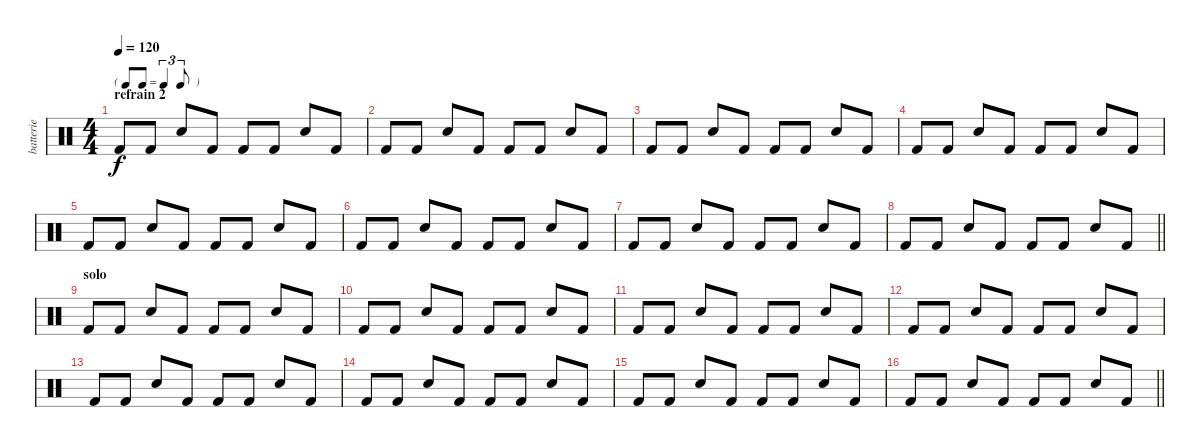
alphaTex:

\track ("batterie" "batterie") {instrument percussion}
\staff {score}
\articulation defaults
\ts (4 4)
\tf triplet8th
\section ("" "refrain 2")
\tempo 120
\clef neutral
\ks c "Kick (hit) 2".8{dy f} "Kick (hit) 2".8 "Snare (hit) 2".8 "Kick (hit) 2".8 "Kick (hit) 2".8 "Kick (hit) 2".8 "Snare (hit) 2".8 "Kick (hit) 2".8
|
"Kick (hit) 2".8 "Kick (hit) 2".8 "Snare (hit) 2".8 "Kick (hit) 2".8 "Kick (hit) 2".8 "Kick (hit) 2".8 "Snare (hit) 2".8 "Kick (hit) 2".8 |
"Kick (hit) 2".8 "Kick (hit) 2".8 "Snare (hit) 2".8 "Kick (hit) 2".8 "Kick (hit) 2".8 "Kick (hit) 2".8 "Snare (hit) 2".8 "Kick (hit) 2".8 |
"Kick (hit) 2".8 "Kick (hit) 2".8 "Snare (hit) 2".8 "Kick (hit) 2".8 "Kick (hit) 2".8 "Kick (hit) 2".8 "Snare (hit) 2".8 "Kick (hit) 2".8 |
"Kick (hit) 2".8 "Kick (hit) 2".8 "Snare (hit) 2".8 "Kick (hit) 2".8 "Kick (hit) 2".8 "Kick (hit) 2".8 "Snare (hit) 2".8 "Kick (hit) 2".8 |
"Kick (hit) 2".8 "Kick (hit) 2".8 "Snare (hit) 2".8 "Kick (hit) 2".8 "Kick (hit) 2".8 "Kick (hit) 2".8 "Snare (hit) 2".8 "Kick (hit) 2".8 |
"Kick (hit) 2".8 "Kick (hit) 2".8 "Snare (hit) 2".8 "Kick (hit) 2".8 "Kick (hit) 2".8 "Kick (hit) 2".8 "Snare (hit) 2".8 "Kick (hit) 2".8 |
\barLineRight lightlight "Kick (hit) 2".8 "Kick (hit) 2".8 "Snare (hit) 2".8 "Kick (hit) 2".8 "Kick (hit) 2".8 "Kick (hit) 2".8 "Snare (hit) 2".8 "Kick (hit) 2".8
|
\section ("" "solo")
"Kick (hit) 2".8 "Kick (hit) 2".8 "Snare (hit) 2".8 "Kick (hit) 2".8 "Kick (hit) 2".8 "Kick (hit) 2".8 "Snare (hit) 2".8 "Kick (hit) 2".8 |
"Kick (hit) 2".8 "Kick (hit) 2".8 "Snare (hit) 2".8 "Kick (hit) 2".8 "Kick (hit) 2".8 "Kick (hit) 2".8 "Snare (hit) 2".8 "Kick (hit) 2".8 |
"Kick (hit) 2".8 "Kick (hit) 2".8 "Snare (hit) 2".8 "Kick (hit) 2".8 "Kick (hit) 2".8 "Kick (hit) 2".8 "Snare (hit) 2".8 "Kick (hit) 2".8 |
"Kick (hit) 2".8 "Kick (hit) 2".8 "Snare (hit) 2".8 "Kick (hit) 2".8 "Kick (hit) 2".8 "Kick (hit) 2".8 "Snare (hit) 2".8 "Kick (hit) 2".8 |
"Kick (hit) 2".8 "Kick (hit) 2".8 "Snare (hit) 2".8 "Kick (hit) 2".8 "Kick (hit) 2".8 "Kick (hit) 2".8 "Snare (hit) 2".8 "Kick (hit) 2".8 |
"Kick (hit) 2".8 "Kick (hit) 2".8 "Snare (hit) 2".8 "Kick (hit) 2".8 "Kick (hit) 2".8 "Kick (hit) 2".8 "Snare (hit) 2".8 "Kick (hit) 2".8 |
"Kick (hit) 2".8 "Kick (hit) 2".8 "Snare (hit) 2".8 "Kick (hit) 2".8 "Kick (hit) 2".8 "Kick (hit) 2".8 "Snare (hit) 2".8 "Kick (hit) 2".8 |
\barLineRight lightlight "Kick (hit) 2".8 "Kick (hit) 2".8 "Snare (hit) 2".8 "Kick (hit) 2".8 "Kick (hit) 2".8 "Kick (hit) 2".8 "Snare (hit) 2".8 "Kick (hit) 2".8
